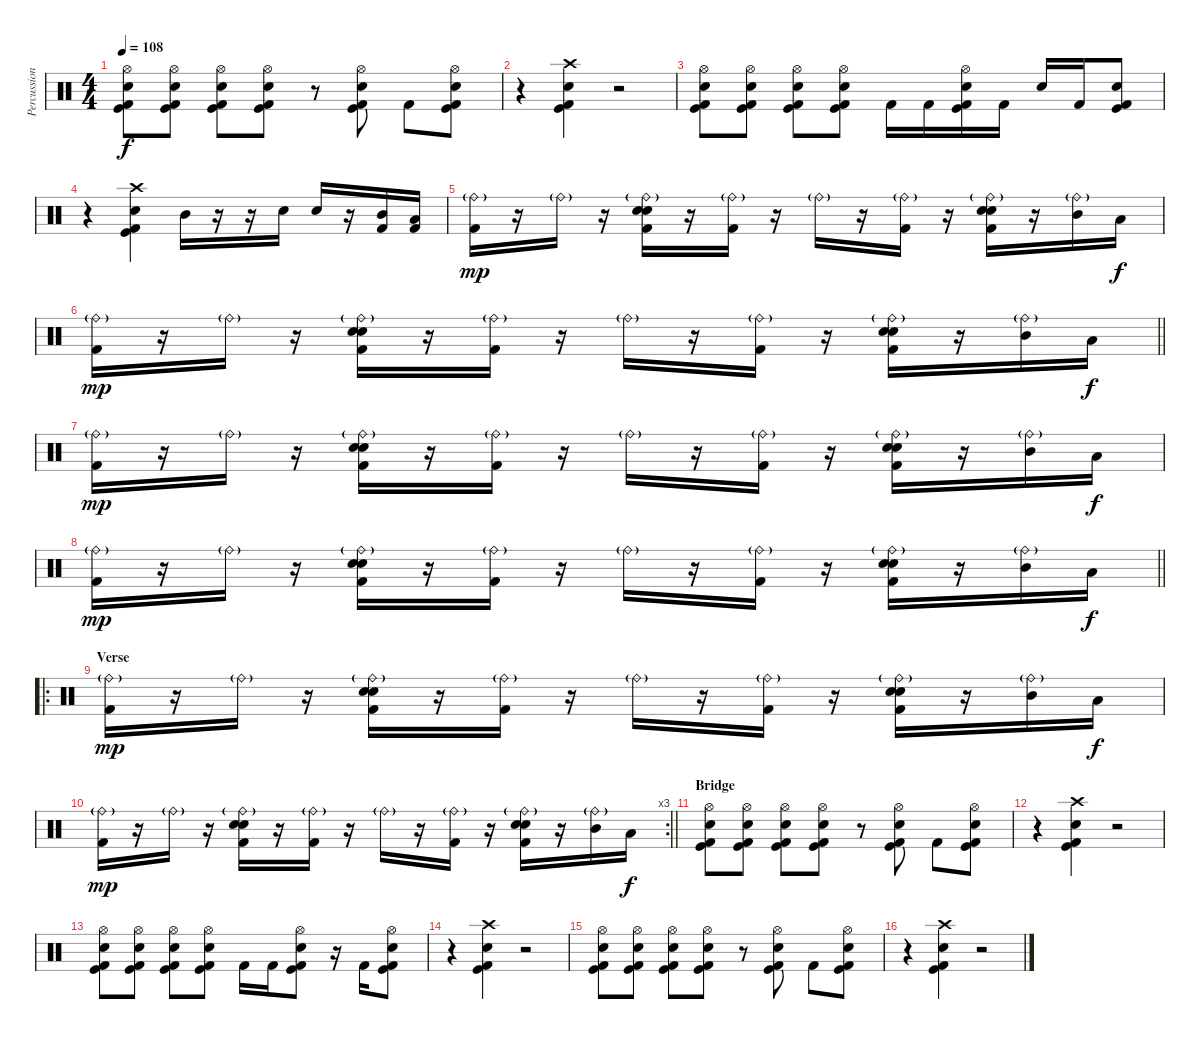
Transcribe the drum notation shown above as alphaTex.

\track ("Percussion" "Percussion") {instrument percussion}
\staff {score}
\articulation defaults
\ts (4 4)
\tempo 108
\clef neutral
\ks c
("Kick (hit)" "Kick (hit) 2" "Snare (hit) 2" "Hi-Hat (open)").8{dy f} ("Kick (hit)" "Kick (hit) 2" "Snare (hit) 2" "Hi-Hat (open)").8 ("Kick (hit)" "Kick (hit) 2" "Snare (hit) 2" "Hi-Hat (open)").8 ("Kick (hit)" "Kick (hit) 2" "Snare (hit) 2" "Hi-Hat (open)").8 r.8 ("Kick (hit)" "Kick (hit) 2" "Snare (hit) 2" "Hi-Hat (open)").8 "Kick (hit) 2".8 ("Kick (hit)" "Kick (hit) 2" "Snare (hit) 2" "Hi-Hat (open)").8 |
r.4 ("Kick (hit)" "Kick (hit) 2" "Snare (hit) 2" "Crash high (hit)").4 r.2 |
("Kick (hit)" "Kick (hit) 2" "Snare (hit) 2" "Hi-Hat (open)").8 ("Kick (hit)" "Kick (hit) 2" "Snare (hit) 2" "Hi-Hat (open)").8 ("Kick (hit)" "Kick (hit) 2" "Snare (hit) 2" "Hi-Hat (open)").8 ("Kick (hit)" "Kick (hit) 2" "Snare (hit) 2" "Hi-Hat (open)").8 "Kick (hit) 2".16 "Kick (hit) 2".16 ("Kick (hit)" "Kick (hit) 2" "Snare (hit) 2" "Hi-Hat (open)").16 "Kick (hit) 2".16 "Snare (hit) 2".16 "Kick (hit) 2".16 ("Kick (hit)" "Kick (hit) 2" "Snare (hit) 2").8 |
r.4 ("Kick (hit)" "Kick (hit) 2" "Snare (hit) 2" "Crash high (hit)").4 "Mid Tom (hit)".16 r.16 r.16 "Snare (hit) 2".16 "Snare (hit) 2".16 r.16 ("Mid Tom (hit)" "Kick (hit) 2").16 ("Low Tom (hit)" "Kick (hit) 2").16 |
("Ride (bell)"{g} "Kick (hit) 2").16{dy mp} r.16 "Ride (bell)"{g}.16 r.16 ("Ride (bell)"{g} "Kick (hit) 2" "Snare (hit) 2" "Electric Snare (hit)").16 r.16 ("Ride (bell)"{g} "Kick (hit) 2").16 r.16 "Ride (bell)"{g}.16 r.16 ("Ride (bell)"{g} "Kick (hit) 2").16 r.16 ("Ride (bell)"{g} "Kick (hit) 2" "Snare (hit) 2" "Electric Snare (hit)").16 r.16 ("Ride (bell)"{g} "Mid Tom (hit)").16 "Low Tom (hit)".16{dy f} |
\barLineRight lightlight
("Ride (bell)"{g} "Kick (hit) 2").16{dy mp} r.16 "Ride (bell)"{g}.16 r.16 ("Ride (bell)"{g} "Kick (hit) 2" "Snare (hit) 2" "Electric Snare (hit)").16 r.16 ("Ride (bell)"{g} "Kick (hit) 2").16 r.16 "Ride (bell)"{g}.16 r.16 ("Ride (bell)"{g} "Kick (hit) 2").16 r.16 ("Ride (bell)"{g} "Kick (hit) 2" "Snare (hit) 2" "Electric Snare (hit)").16 r.16 ("Ride (bell)"{g} "Mid Tom (hit)").16 "Low Tom (hit)".16{dy f} |
("Ride (bell)"{g} "Kick (hit) 2").16{dy mp} r.16 "Ride (bell)"{g}.16 r.16 ("Ride (bell)"{g} "Kick (hit) 2" "Snare (hit) 2" "Electric Snare (hit)").16 r.16 ("Ride (bell)"{g} "Kick (hit) 2").16 r.16 "Ride (bell)"{g}.16 r.16 ("Ride (bell)"{g} "Kick (hit) 2").16 r.16 ("Ride (bell)"{g} "Kick (hit) 2" "Snare (hit) 2" "Electric Snare (hit)").16 r.16 ("Ride (bell)"{g} "Mid Tom (hit)").16 "Low Tom (hit)".16{dy f} |
\barLineRight lightlight
("Ride (bell)"{g} "Kick (hit) 2").16{dy mp} r.16 "Ride (bell)"{g}.16 r.16 ("Ride (bell)"{g} "Kick (hit) 2" "Snare (hit) 2" "Electric Snare (hit)").16 r.16 ("Ride (bell)"{g} "Kick (hit) 2").16 r.16 "Ride (bell)"{g}.16 r.16 ("Ride (bell)"{g} "Kick (hit) 2").16 r.16 ("Ride (bell)"{g} "Kick (hit) 2" "Snare (hit) 2" "Electric Snare (hit)").16 r.16 ("Ride (bell)"{g} "Mid Tom (hit)").16 "Low Tom (hit)".16{dy f} |
\ro
\section ("" "Verse")
("Ride (bell)"{g} "Kick (hit) 2").16{dy mp} r.16 "Ride (bell)"{g}.16 r.16 ("Ride (bell)"{g} "Kick (hit) 2" "Snare (hit) 2" "Electric Snare (hit)").16 r.16 ("Ride (bell)"{g} "Kick (hit) 2").16 r.16 "Ride (bell)"{g}.16 r.16 ("Ride (bell)"{g} "Kick (hit) 2").16 r.16 ("Ride (bell)"{g} "Kick (hit) 2" "Snare (hit) 2" "Electric Snare (hit)").16 r.16 ("Ride (bell)"{g} "Mid Tom (hit)").16 "Low Tom (hit)".16{dy f} |
\rc 3
\barLineRight lightlight
("Ride (bell)"{g} "Kick (hit) 2").16{dy mp} r.16 "Ride (bell)"{g}.16 r.16 ("Ride (bell)"{g} "Kick (hit) 2" "Snare (hit) 2" "Electric Snare (hit)").16 r.16 ("Ride (bell)"{g} "Kick (hit) 2").16 r.16 "Ride (bell)"{g}.16 r.16 ("Ride (bell)"{g} "Kick (hit) 2").16 r.16 ("Ride (bell)"{g} "Kick (hit) 2" "Snare (hit) 2" "Electric Snare (hit)").16 r.16 ("Ride (bell)"{g} "Mid Tom (hit)").16 "Low Tom (hit)".16{dy f} |
\section ("" "Bridge")
("Kick (hit)" "Kick (hit) 2" "Snare (hit) 2" "Hi-Hat (open)").8 ("Kick (hit)" "Kick (hit) 2" "Snare (hit) 2" "Hi-Hat (open)").8 ("Kick (hit)" "Kick (hit) 2" "Snare (hit) 2" "Hi-Hat (open)").8 ("Kick (hit)" "Kick (hit) 2" "Snare (hit) 2" "Hi-Hat (open)").8 r.8 ("Kick (hit)" "Kick (hit) 2" "Snare (hit) 2" "Hi-Hat (open)").8 "Kick (hit) 2".8 ("Kick (hit)" "Kick (hit) 2" "Snare (hit) 2" "Hi-Hat (open)").8 |
r.4 ("Kick (hit)" "Kick (hit) 2" "Snare (hit) 2" "Crash high (hit)").4 r.2 |
("Kick (hit)" "Kick (hit) 2" "Snare (hit) 2" "Hi-Hat (open)").8 ("Kick (hit)" "Kick (hit) 2" "Snare (hit) 2" "Hi-Hat (open)").8 ("Kick (hit)" "Kick (hit) 2" "Snare (hit) 2" "Hi-Hat (open)").8 ("Kick (hit)" "Kick (hit) 2" "Snare (hit) 2" "Hi-Hat (open)").8 "Kick (hit) 2".16 "Kick (hit) 2".16 ("Kick (hit)" "Kick (hit) 2" "Snare (hit) 2" "Hi-Hat (open)").8 r.16 "Kick (hit) 2".16 ("Kick (hit)" "Kick (hit) 2" "Snare (hit) 2" "Hi-Hat (open)").8 |
r.4 ("Kick (hit)" "Kick (hit) 2" "Snare (hit) 2" "Crash high (hit)").4 r.2 |
("Kick (hit)" "Kick (hit) 2" "Snare (hit) 2" "Hi-Hat (open)").8 ("Kick (hit)" "Kick (hit) 2" "Snare (hit) 2" "Hi-Hat (open)").8 ("Kick (hit)" "Kick (hit) 2" "Snare (hit) 2" "Hi-Hat (open)").8 ("Kick (hit)" "Kick (hit) 2" "Snare (hit) 2" "Hi-Hat (open)").8 r.8 ("Kick (hit)" "Kick (hit) 2" "Snare (hit) 2" "Hi-Hat (open)").8 "Kick (hit) 2".8 ("Kick (hit)" "Kick (hit) 2" "Snare (hit) 2" "Hi-Hat (open)").8 |
r.4 ("Kick (hit)" "Kick (hit) 2" "Snare (hit) 2" "Crash high (hit)").4 r.2
